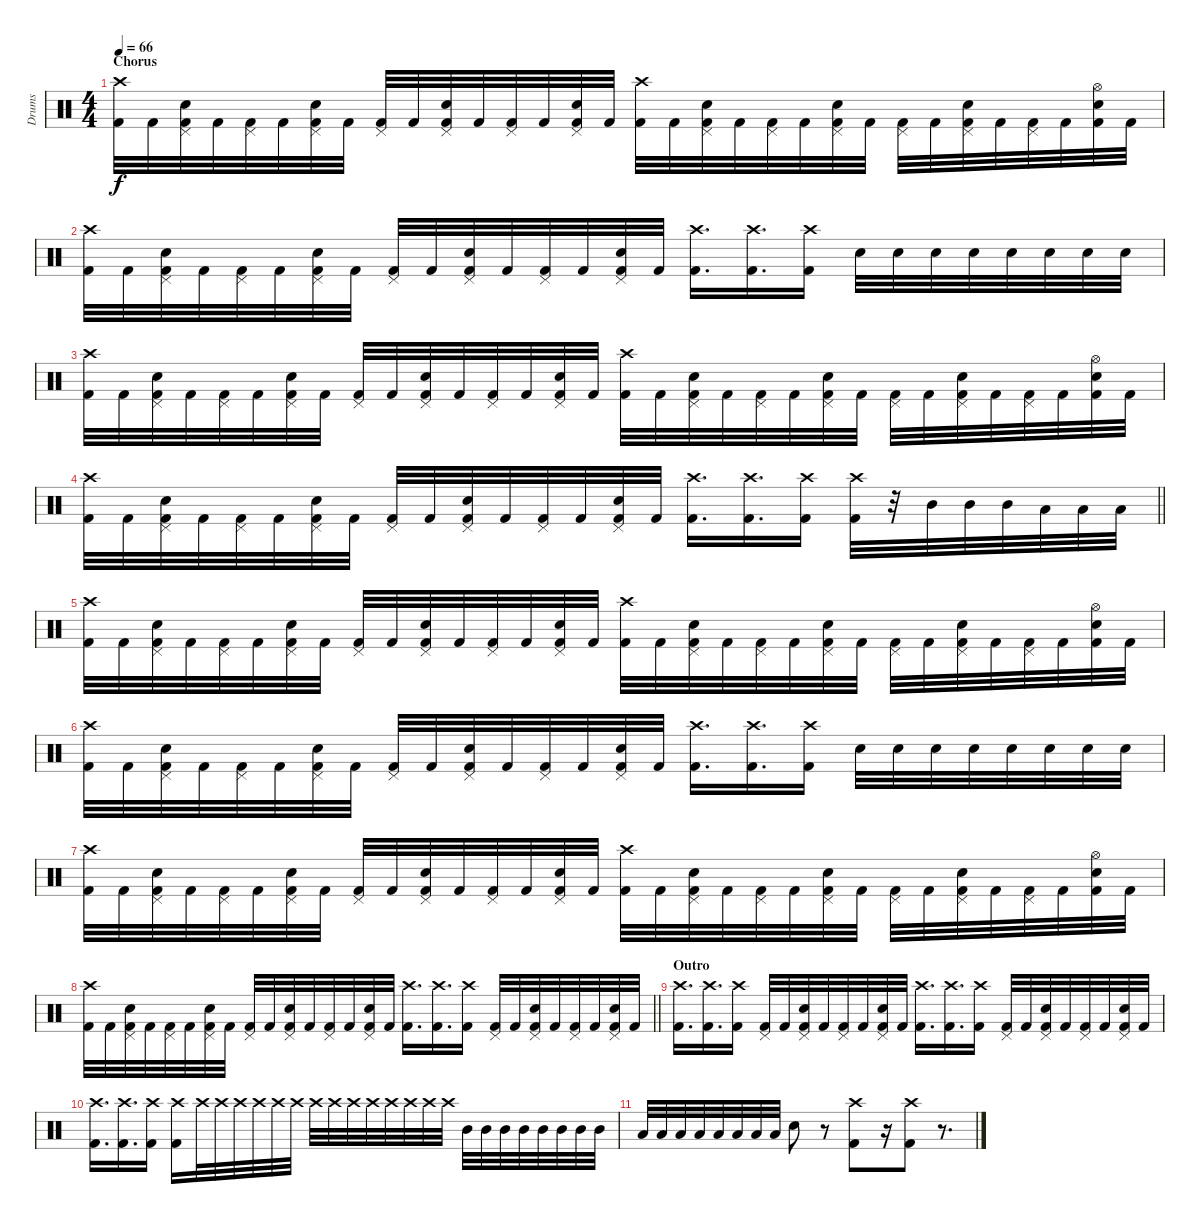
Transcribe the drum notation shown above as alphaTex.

\track ("Drums" "Drums") {instrument percussion}
\staff {score}
\articulation defaults
\ts (4 4)
\section ("" "Chorus")
\tempo 66
\clef neutral
\ks c
("Crash high (hit)" "Kick (hit) 2").32{dy f} "Kick (hit) 2".32 ("Pedal Hi-Hat (hit)" "Snare (hit) 2" "Kick (hit) 2").32 "Kick (hit) 2".32 ("Pedal Hi-Hat (hit)" "Kick (hit) 2").32 "Kick (hit) 2".32 ("Pedal Hi-Hat (hit)" "Snare (hit) 2" "Kick (hit) 2").32 "Kick (hit) 2".32 ("Pedal Hi-Hat (hit)" "Kick (hit) 2").32 "Kick (hit) 2".32 ("Pedal Hi-Hat (hit)" "Snare (hit) 2" "Kick (hit) 2").32 "Kick (hit) 2".32 ("Pedal Hi-Hat (hit)" "Kick (hit) 2").32 "Kick (hit) 2".32 ("Pedal Hi-Hat (hit)" "Snare (hit) 2" "Kick (hit) 2").32 "Kick (hit) 2".32 ("Crash high (hit)" "Kick (hit) 2").32 "Kick (hit) 2".32 ("Pedal Hi-Hat (hit)" "Snare (hit) 2" "Kick (hit) 2").32 "Kick (hit) 2".32 ("Pedal Hi-Hat (hit)" "Kick (hit) 2").32 "Kick (hit) 2".32 ("Pedal Hi-Hat (hit)" "Snare (hit) 2" "Kick (hit) 2").32 "Kick (hit) 2".32 ("Pedal Hi-Hat (hit)" "Kick (hit) 2").32 "Kick (hit) 2".32 ("Pedal Hi-Hat (hit)" "Snare (hit) 2" "Kick (hit) 2").32 "Kick (hit) 2".32 ("Pedal Hi-Hat (hit)" "Kick (hit) 2").32 "Kick (hit) 2".32 ("Hi-Hat (open)" "Snare (hit) 2" "Kick (hit) 2").32 "Kick (hit) 2".32 |
("Crash high (hit)" "Kick (hit) 2").32 "Kick (hit) 2".32 ("Pedal Hi-Hat (hit)" "Snare (hit) 2" "Kick (hit) 2").32 "Kick (hit) 2".32 ("Pedal Hi-Hat (hit)" "Kick (hit) 2").32 "Kick (hit) 2".32 ("Pedal Hi-Hat (hit)" "Snare (hit) 2" "Kick (hit) 2").32 "Kick (hit) 2".32 ("Pedal Hi-Hat (hit)" "Kick (hit) 2").32 "Kick (hit) 2".32 ("Pedal Hi-Hat (hit)" "Snare (hit) 2" "Kick (hit) 2").32 "Kick (hit) 2".32 ("Pedal Hi-Hat (hit)" "Kick (hit) 2").32 "Kick (hit) 2".32 ("Pedal Hi-Hat (hit)" "Snare (hit) 2" "Kick (hit) 2").32 "Kick (hit) 2".32 ("Crash high (hit)" "Kick (hit) 2").16{d} ("Crash high (hit)" "Kick (hit) 2").16{d} ("Crash high (hit)" "Kick (hit) 2").16 "Snare (hit) 2".32 "Snare (hit) 2".32 "Snare (hit) 2".32 "Snare (hit) 2".32 "Snare (hit) 2".32 "Snare (hit) 2".32 "Snare (hit) 2".32 "Snare (hit) 2".32 |
("Crash high (hit)" "Kick (hit) 2").32 "Kick (hit) 2".32 ("Pedal Hi-Hat (hit)" "Snare (hit) 2" "Kick (hit) 2").32 "Kick (hit) 2".32 ("Pedal Hi-Hat (hit)" "Kick (hit) 2").32 "Kick (hit) 2".32 ("Pedal Hi-Hat (hit)" "Snare (hit) 2" "Kick (hit) 2").32 "Kick (hit) 2".32 ("Pedal Hi-Hat (hit)" "Kick (hit) 2").32 "Kick (hit) 2".32 ("Pedal Hi-Hat (hit)" "Snare (hit) 2" "Kick (hit) 2").32 "Kick (hit) 2".32 ("Pedal Hi-Hat (hit)" "Kick (hit) 2").32 "Kick (hit) 2".32 ("Pedal Hi-Hat (hit)" "Snare (hit) 2" "Kick (hit) 2").32 "Kick (hit) 2".32 ("Crash high (hit)" "Kick (hit) 2").32 "Kick (hit) 2".32 ("Pedal Hi-Hat (hit)" "Snare (hit) 2" "Kick (hit) 2").32 "Kick (hit) 2".32 ("Pedal Hi-Hat (hit)" "Kick (hit) 2").32 "Kick (hit) 2".32 ("Pedal Hi-Hat (hit)" "Snare (hit) 2" "Kick (hit) 2").32 "Kick (hit) 2".32 ("Pedal Hi-Hat (hit)" "Kick (hit) 2").32 "Kick (hit) 2".32 ("Pedal Hi-Hat (hit)" "Snare (hit) 2" "Kick (hit) 2").32 "Kick (hit) 2".32 ("Pedal Hi-Hat (hit)" "Kick (hit) 2").32 "Kick (hit) 2".32 ("Hi-Hat (open)" "Snare (hit) 2" "Kick (hit) 2").32 "Kick (hit) 2".32 |
\barLineRight lightlight
("Crash high (hit)" "Kick (hit) 2").32 "Kick (hit) 2".32 ("Pedal Hi-Hat (hit)" "Snare (hit) 2" "Kick (hit) 2").32 "Kick (hit) 2".32 ("Pedal Hi-Hat (hit)" "Kick (hit) 2").32 "Kick (hit) 2".32 ("Pedal Hi-Hat (hit)" "Snare (hit) 2" "Kick (hit) 2").32 "Kick (hit) 2".32 ("Pedal Hi-Hat (hit)" "Kick (hit) 2").32 "Kick (hit) 2".32 ("Pedal Hi-Hat (hit)" "Snare (hit) 2" "Kick (hit) 2").32 "Kick (hit) 2".32 ("Pedal Hi-Hat (hit)" "Kick (hit) 2").32 "Kick (hit) 2".32 ("Pedal Hi-Hat (hit)" "Snare (hit) 2" "Kick (hit) 2").32 "Kick (hit) 2".32 ("Crash high (hit)" "Kick (hit) 2").16{d} ("Crash high (hit)" "Kick (hit) 2").16{d} ("Crash high (hit)" "Kick (hit) 2").16 ("Crash high (hit)" "Kick (hit) 2").32 r.32 "Mid Tom (hit)".32 "Mid Tom (hit)".32 "Mid Tom (hit)".32 "Low Tom (hit)".32 "Low Tom (hit)".32 "Low Tom (hit)".32 |
("Crash high (hit)" "Kick (hit) 2").32 "Kick (hit) 2".32 ("Pedal Hi-Hat (hit)" "Snare (hit) 2" "Kick (hit) 2").32 "Kick (hit) 2".32 ("Pedal Hi-Hat (hit)" "Kick (hit) 2").32 "Kick (hit) 2".32 ("Pedal Hi-Hat (hit)" "Snare (hit) 2" "Kick (hit) 2").32 "Kick (hit) 2".32 ("Pedal Hi-Hat (hit)" "Kick (hit) 2").32 "Kick (hit) 2".32 ("Pedal Hi-Hat (hit)" "Snare (hit) 2" "Kick (hit) 2").32 "Kick (hit) 2".32 ("Pedal Hi-Hat (hit)" "Kick (hit) 2").32 "Kick (hit) 2".32 ("Pedal Hi-Hat (hit)" "Snare (hit) 2" "Kick (hit) 2").32 "Kick (hit) 2".32 ("Crash high (hit)" "Kick (hit) 2").32 "Kick (hit) 2".32 ("Pedal Hi-Hat (hit)" "Snare (hit) 2" "Kick (hit) 2").32 "Kick (hit) 2".32 ("Pedal Hi-Hat (hit)" "Kick (hit) 2").32 "Kick (hit) 2".32 ("Pedal Hi-Hat (hit)" "Snare (hit) 2" "Kick (hit) 2").32 "Kick (hit) 2".32 ("Pedal Hi-Hat (hit)" "Kick (hit) 2").32 "Kick (hit) 2".32 ("Pedal Hi-Hat (hit)" "Snare (hit) 2" "Kick (hit) 2").32 "Kick (hit) 2".32 ("Pedal Hi-Hat (hit)" "Kick (hit) 2").32 "Kick (hit) 2".32 ("Hi-Hat (open)" "Snare (hit) 2" "Kick (hit) 2").32 "Kick (hit) 2".32 |
("Crash high (hit)" "Kick (hit) 2").32 "Kick (hit) 2".32 ("Pedal Hi-Hat (hit)" "Snare (hit) 2" "Kick (hit) 2").32 "Kick (hit) 2".32 ("Pedal Hi-Hat (hit)" "Kick (hit) 2").32 "Kick (hit) 2".32 ("Pedal Hi-Hat (hit)" "Snare (hit) 2" "Kick (hit) 2").32 "Kick (hit) 2".32 ("Pedal Hi-Hat (hit)" "Kick (hit) 2").32 "Kick (hit) 2".32 ("Pedal Hi-Hat (hit)" "Snare (hit) 2" "Kick (hit) 2").32 "Kick (hit) 2".32 ("Pedal Hi-Hat (hit)" "Kick (hit) 2").32 "Kick (hit) 2".32 ("Pedal Hi-Hat (hit)" "Snare (hit) 2" "Kick (hit) 2").32 "Kick (hit) 2".32 ("Crash high (hit)" "Kick (hit) 2").16{d} ("Crash high (hit)" "Kick (hit) 2").16{d} ("Crash high (hit)" "Kick (hit) 2").16 "Snare (hit) 2".32 "Snare (hit) 2".32 "Snare (hit) 2".32 "Snare (hit) 2".32 "Snare (hit) 2".32 "Snare (hit) 2".32 "Snare (hit) 2".32 "Snare (hit) 2".32 |
("Crash high (hit)" "Kick (hit) 2").32 "Kick (hit) 2".32 ("Pedal Hi-Hat (hit)" "Snare (hit) 2" "Kick (hit) 2").32 "Kick (hit) 2".32 ("Pedal Hi-Hat (hit)" "Kick (hit) 2").32 "Kick (hit) 2".32 ("Pedal Hi-Hat (hit)" "Snare (hit) 2" "Kick (hit) 2").32 "Kick (hit) 2".32 ("Pedal Hi-Hat (hit)" "Kick (hit) 2").32 "Kick (hit) 2".32 ("Pedal Hi-Hat (hit)" "Snare (hit) 2" "Kick (hit) 2").32 "Kick (hit) 2".32 ("Pedal Hi-Hat (hit)" "Kick (hit) 2").32 "Kick (hit) 2".32 ("Pedal Hi-Hat (hit)" "Snare (hit) 2" "Kick (hit) 2").32 "Kick (hit) 2".32 ("Crash high (hit)" "Kick (hit) 2").32 "Kick (hit) 2".32 ("Pedal Hi-Hat (hit)" "Snare (hit) 2" "Kick (hit) 2").32 "Kick (hit) 2".32 ("Pedal Hi-Hat (hit)" "Kick (hit) 2").32 "Kick (hit) 2".32 ("Pedal Hi-Hat (hit)" "Snare (hit) 2" "Kick (hit) 2").32 "Kick (hit) 2".32 ("Pedal Hi-Hat (hit)" "Kick (hit) 2").32 "Kick (hit) 2".32 ("Pedal Hi-Hat (hit)" "Snare (hit) 2" "Kick (hit) 2").32 "Kick (hit) 2".32 ("Pedal Hi-Hat (hit)" "Kick (hit) 2").32 "Kick (hit) 2".32 ("Hi-Hat (open)" "Snare (hit) 2" "Kick (hit) 2").32 "Kick (hit) 2".32 |
\barLineRight lightlight
("Crash high (hit)" "Kick (hit) 2").32 "Kick (hit) 2".32 ("Pedal Hi-Hat (hit)" "Snare (hit) 2" "Kick (hit) 2").32 "Kick (hit) 2".32 ("Pedal Hi-Hat (hit)" "Kick (hit) 2").32 "Kick (hit) 2".32 ("Pedal Hi-Hat (hit)" "Snare (hit) 2" "Kick (hit) 2").32 "Kick (hit) 2".32 ("Pedal Hi-Hat (hit)" "Kick (hit) 2").32 "Kick (hit) 2".32 ("Pedal Hi-Hat (hit)" "Snare (hit) 2" "Kick (hit) 2").32 "Kick (hit) 2".32 ("Pedal Hi-Hat (hit)" "Kick (hit) 2").32 "Kick (hit) 2".32 ("Pedal Hi-Hat (hit)" "Snare (hit) 2" "Kick (hit) 2").32 "Kick (hit) 2".32 ("Crash high (hit)" "Kick (hit) 2").16{d} ("Crash high (hit)" "Kick (hit) 2").16{d} ("Crash high (hit)" "Kick (hit) 2").16 ("Pedal Hi-Hat (hit)" "Kick (hit) 2").32 "Kick (hit) 2".32 ("Pedal Hi-Hat (hit)" "Snare (hit) 2" "Kick (hit) 2").32 "Kick (hit) 2".32 ("Pedal Hi-Hat (hit)" "Kick (hit) 2").32 "Kick (hit) 2".32 ("Pedal Hi-Hat (hit)" "Snare (hit) 2" "Kick (hit) 2").32 "Kick (hit) 2".32 |
\section ("" "Outro")
("Crash high (hit)" "Kick (hit) 2").16{d} ("Crash high (hit)" "Kick (hit) 2").16{d} ("Crash high (hit)" "Kick (hit) 2").16 ("Pedal Hi-Hat (hit)" "Kick (hit) 2").32 "Kick (hit) 2".32 ("Pedal Hi-Hat (hit)" "Snare (hit) 2" "Kick (hit) 2").32 "Kick (hit) 2".32 ("Pedal Hi-Hat (hit)" "Kick (hit) 2").32 "Kick (hit) 2".32 ("Pedal Hi-Hat (hit)" "Snare (hit) 2" "Kick (hit) 2").32 "Kick (hit) 2".32 ("Crash high (hit)" "Kick (hit) 2").16{d} ("Crash high (hit)" "Kick (hit) 2").16{d} ("Crash high (hit)" "Kick (hit) 2").16 ("Pedal Hi-Hat (hit)" "Kick (hit) 2").32 "Kick (hit) 2".32 ("Pedal Hi-Hat (hit)" "Snare (hit) 2" "Kick (hit) 2").32 "Kick (hit) 2".32 ("Pedal Hi-Hat (hit)" "Kick (hit) 2").32 "Kick (hit) 2".32 ("Pedal Hi-Hat (hit)" "Snare (hit) 2" "Kick (hit) 2").32 "Kick (hit) 2".32 |
("Crash high (hit)" "Kick (hit) 2").16{d} ("Crash high (hit)" "Kick (hit) 2").16{d} ("Crash high (hit)" "Kick (hit) 2").16 ("Crash high (hit)" "Kick (hit) 2").16 "Crash high (hit)".32 "Crash high (hit)".32 "Crash high (hit)".32 "Crash high (hit)".32 "Crash high (hit)".32 "Crash high (hit)".32 "Crash high (hit)".32 "Crash high (hit)".32 "Crash high (hit)".32 "Crash high (hit)".32 "Crash high (hit)".32 "Crash high (hit)".32 "Crash high (hit)".32 "Crash high (hit)".32 "Mid Tom (hit)".32 "Mid Tom (hit)".32 "Mid Tom (hit)".32 "Mid Tom (hit)".32 "Mid Tom (hit)".32 "Mid Tom (hit)".32 "Mid Tom (hit)".32 "Mid Tom (hit)".32 |
"Low Tom (hit)".32 "Low Tom (hit)".32 "Low Tom (hit)".32 "Low Tom (hit)".32 "Low Tom (hit)".32 "Low Tom (hit)".32 "Low Tom (hit)".32 "Low Tom (hit)".32 "Snare (hit) 2".8 r.8 ("Crash high (hit)" "Kick (hit) 2").8 r.16 ("Crash high (hit)" "Kick (hit) 2").8 r.8{d}
